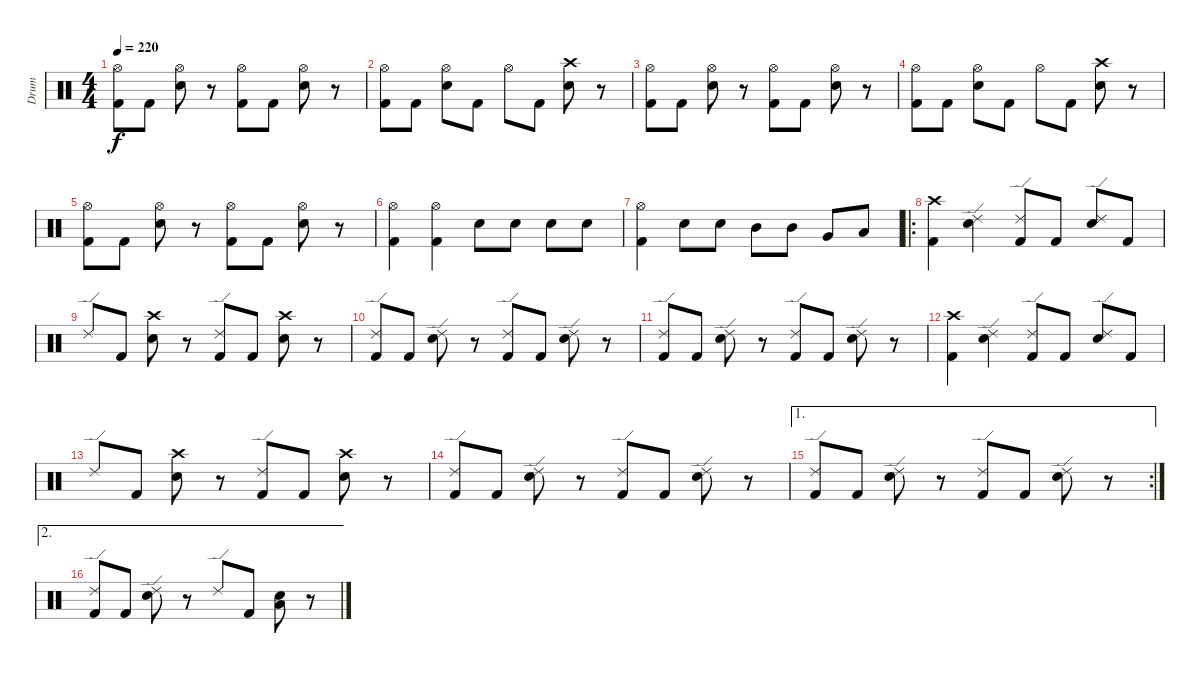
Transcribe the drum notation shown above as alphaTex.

\track ("Drum" "Drum") {instrument percussion}
\staff {score}
\articulation defaults
\ts (4 4)
\tempo 220
\clef neutral
\ks c
("Kick (hit) 2" "Hi-Hat (open)").8{dy f} "Kick (hit) 2".8 ("Electric Snare (hit)" "Hi-Hat (open)").8 r.8 ("Kick (hit) 2" "Hi-Hat (open)").8 "Kick (hit) 2".8 ("Electric Snare (hit)" "Hi-Hat (open)").8 r.8 |
("Kick (hit) 2" "Hi-Hat (open)").8 "Kick (hit) 2".8 ("Electric Snare (hit)" "Hi-Hat (open)").8 "Kick (hit) 2".8 "Hi-Hat (open)".8 "Kick (hit) 2".8 ("Electric Snare (hit)" "Crash high (hit)").8 r.8 |
("Kick (hit) 2" "Hi-Hat (open)").8 "Kick (hit) 2".8 ("Electric Snare (hit)" "Hi-Hat (open)").8 r.8 ("Kick (hit) 2" "Hi-Hat (open)").8 "Kick (hit) 2".8 ("Electric Snare (hit)" "Hi-Hat (open)").8 r.8 |
("Kick (hit) 2" "Hi-Hat (open)").8 "Kick (hit) 2".8 ("Electric Snare (hit)" "Hi-Hat (open)").8 "Kick (hit) 2".8 "Hi-Hat (open)".8 "Kick (hit) 2".8 ("Electric Snare (hit)" "Crash high (hit)").8 r.8 |
("Kick (hit) 2" "Hi-Hat (open)").8 "Kick (hit) 2".8 ("Electric Snare (hit)" "Hi-Hat (open)").8 r.8 ("Kick (hit) 2" "Hi-Hat (open)").8 "Kick (hit) 2".8 ("Electric Snare (hit)" "Hi-Hat (open)").8 r.8 |
("Kick (hit) 2" "Hi-Hat (open)").4 ("Kick (hit) 2" "Hi-Hat (open)").4 "Electric Snare (hit)".8 "Electric Snare (hit)".8 "Electric Snare (hit)".8 "Electric Snare (hit)".8 |
("Kick (hit) 2" "Hi-Hat (open)").4 "Electric Snare (hit)".8 "Electric Snare (hit)".8 "Mid Tom (hit)".8 "Mid Tom (hit)".8 "Very Low Tom (hit)".8 "Low Floor Tom (hit)".8 |
\ro
("Kick (hit) 2" "Crash high (hit)").4 ("Electric Snare (hit)" "Ride (edge) 2").4 ("Kick (hit) 2" "Ride (edge) 2").8 "Kick (hit) 2".8 ("Electric Snare (hit)" "Ride (edge) 2").8 "Kick (hit) 2".8 |
"Ride (edge) 2".8 "Kick (hit) 2".8 ("Electric Snare (hit)" "Crash high (hit)").8 r.8 ("Kick (hit) 2" "Ride (edge) 2").8 "Kick (hit) 2".8 ("Electric Snare (hit)" "Crash high (hit)").8 r.8 |
("Kick (hit) 2" "Ride (edge) 2").8 "Kick (hit) 2".8 ("Electric Snare (hit)" "Ride (edge) 2").8 r.8 ("Kick (hit) 2" "Ride (edge) 2").8 "Kick (hit) 2".8 ("Electric Snare (hit)" "Ride (edge) 2").8 r.8 |
("Kick (hit) 2" "Ride (edge) 2").8 "Kick (hit) 2".8 ("Electric Snare (hit)" "Ride (edge) 2").8 r.8 ("Kick (hit) 2" "Ride (edge) 2").8 "Kick (hit) 2".8 ("Electric Snare (hit)" "Ride (edge) 2").8 r.8 |
("Kick (hit) 2" "Crash high (hit)").4 ("Electric Snare (hit)" "Ride (edge) 2").4 ("Kick (hit) 2" "Ride (edge) 2").8 "Kick (hit) 2".8 ("Electric Snare (hit)" "Ride (edge) 2").8 "Kick (hit) 2".8 |
"Ride (edge) 2".8 "Kick (hit) 2".8 ("Electric Snare (hit)" "Crash high (hit)").8 r.8 ("Kick (hit) 2" "Ride (edge) 2").8 "Kick (hit) 2".8 ("Electric Snare (hit)" "Crash high (hit)").8 r.8 |
("Kick (hit) 2" "Ride (edge) 2").8 "Kick (hit) 2".8 ("Electric Snare (hit)" "Ride (edge) 2").8 r.8 ("Kick (hit) 2" "Ride (edge) 2").8 "Kick (hit) 2".8 ("Electric Snare (hit)" "Ride (edge) 2").8 r.8 |
\ae 1
\rc 2
("Kick (hit) 2" "Ride (edge) 2").8 "Kick (hit) 2".8 ("Electric Snare (hit)" "Ride (edge) 2").8 r.8 ("Kick (hit) 2" "Ride (edge) 2").8 "Kick (hit) 2".8 ("Electric Snare (hit)" "Ride (edge) 2").8 r.8 |
\ae 2
("Kick (hit) 2" "Ride (edge) 2").8 "Kick (hit) 2".8 ("Electric Snare (hit)" "Ride (edge) 2").8 r.8 "Ride (edge) 2".8 "Kick (hit) 2".8 ("Low Floor Tom (hit)" "Electric Snare (hit)").8 r.8
